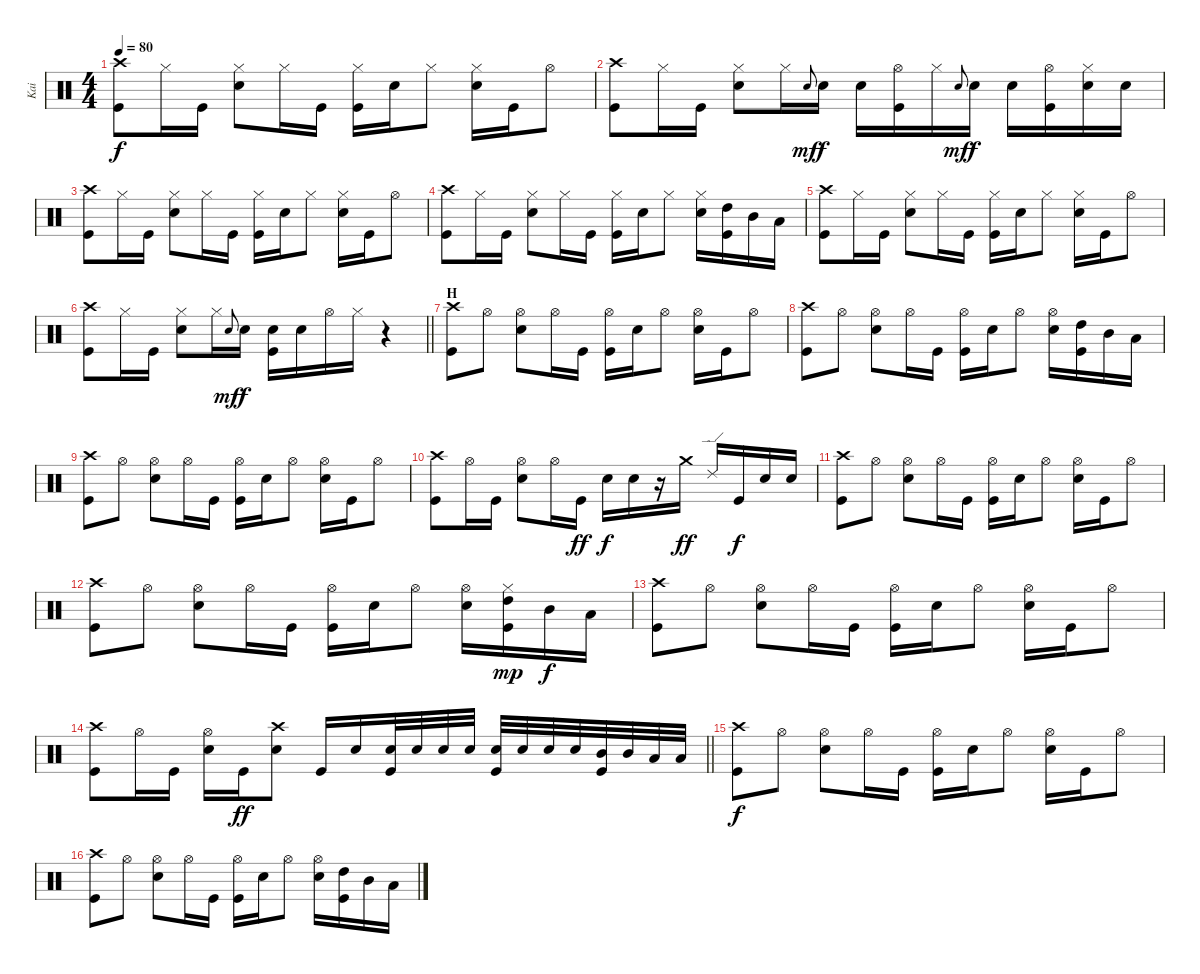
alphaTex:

\track ("Kai" "Kai") {instrument percussion}
\staff {score}
\articulation defaults
\ts (4 4)
\tempo 80
\clef neutral
\ks c
("Kick (hit)" "Crash high (hit)").8{dy f} "Hi-Hat (closed)".16 "Kick (hit)".16 ("Snare (hit) 2" "Hi-Hat (closed)").8 "Hi-Hat (closed)".16 "Kick (hit)".16 ("Kick (hit)" "Hi-Hat (closed)").16 "Snare (hit) 2".16 "Hi-Hat (closed)".8 ("Snare (hit) 2" "Hi-Hat (closed)").16 "Kick (hit)".16 "Hi-Hat (open)".8 |
("Kick (hit)" "Crash high (hit)").8 "Hi-Hat (closed)".16 "Kick (hit)".16 ("Snare (hit) 2" "Hi-Hat (closed)").8 "Hi-Hat (closed)".16 "Snare (hit) 2".8{gr onbeat dy mf} "Snare (hit) 2".16{dy f} "Snare (hit) 2".16 ("Kick (hit)" "Hi-Hat (open)").16 "Hi-Hat (closed)".16 "Snare (hit) 2".8{gr onbeat dy mf} "Snare (hit) 2".16{dy f} "Snare (hit) 2".16 ("Hi-Hat (open)" "Kick (hit)").16 ("Snare (hit) 2" "Hi-Hat (closed)").16 "Snare (hit) 2".16 |
("Kick (hit)" "Crash high (hit)").8 "Hi-Hat (closed)".16 "Kick (hit)".16 ("Snare (hit) 2" "Hi-Hat (closed)").8 "Hi-Hat (closed)".16 "Kick (hit)".16 ("Kick (hit)" "Hi-Hat (closed)").16 "Snare (hit) 2".16 "Hi-Hat (closed)".8 ("Snare (hit) 2" "Hi-Hat (closed)").16 "Kick (hit)".16 "Hi-Hat (open)".8 |
("Kick (hit)" "Crash high (hit)").8 "Hi-Hat (closed)".16 "Kick (hit)".16 ("Snare (hit) 2" "Hi-Hat (closed)").8 "Hi-Hat (closed)".16 "Kick (hit)".16 ("Kick (hit)" "Hi-Hat (closed)").16 "Snare (hit) 2".16 "Hi-Hat (closed)".8 ("Snare (hit) 2" "Hi-Hat (closed)").16 ("High Tom (hit)" "Kick (hit)").16 "Mid Tom (hit)".16 "Low Tom (hit)".16 |
("Kick (hit)" "Crash high (hit)").8 "Hi-Hat (closed)".16 "Kick (hit)".16 ("Snare (hit) 2" "Hi-Hat (closed)").8 "Hi-Hat (closed)".16 "Kick (hit)".16 ("Kick (hit)" "Hi-Hat (closed)").16 "Snare (hit) 2".16 "Hi-Hat (closed)".8 ("Snare (hit) 2" "Hi-Hat (closed)").16 "Kick (hit)".16 "Hi-Hat (open)".8 |
\barLineRight lightlight
("Kick (hit)" "Crash high (hit)").8 "Hi-Hat (closed)".16 "Kick (hit)".16 ("Snare (hit) 2" "Hi-Hat (closed)").8 "Hi-Hat (closed)".16 "Snare (hit) 2".8{gr onbeat dy mf} "Snare (hit) 2".16{dy f} ("Snare (hit) 2" "Kick (hit)").16 "Snare (hit) 2".16 "Hi-Hat (open)".16 "Hi-Hat (closed)".16 r.4 |
\section ("" "H")
("Kick (hit)" "Crash high (hit)").8 "Hi-Hat (open)".8 ("Snare (hit) 2" "Hi-Hat (open)").8 "Hi-Hat (open)".16 "Kick (hit)".16 ("Kick (hit)" "Hi-Hat (open)").16 "Snare (hit) 2".16 "Hi-Hat (open)".8 ("Snare (hit) 2" "Hi-Hat (open)").16 "Kick (hit)".16 "Hi-Hat (open)".8 |
("Kick (hit)" "Crash high (hit)").8 "Hi-Hat (open)".8 ("Snare (hit) 2" "Hi-Hat (open)").8 "Hi-Hat (open)".16 "Kick (hit)".16 ("Kick (hit)" "Hi-Hat (open)").16 "Snare (hit) 2".16 "Hi-Hat (open)".8 ("Snare (hit) 2" "Hi-Hat (open)").16 ("High Tom (hit)" "Kick (hit)").16 "Mid Tom (hit)".16 "Low Tom (hit)".16 |
("Kick (hit)" "Crash high (hit)").8 "Hi-Hat (open)".8 ("Snare (hit) 2" "Hi-Hat (open)").8 "Hi-Hat (open)".16 "Kick (hit)".16 ("Kick (hit)" "Hi-Hat (open)").16 "Snare (hit) 2".16 "Hi-Hat (open)".8 ("Snare (hit) 2" "Hi-Hat (open)").16 "Kick (hit)".16 "Hi-Hat (open)".8 |
("Kick (hit)" "Crash high (hit)").8 "Hi-Hat (open)".16 "Kick (hit)".16 ("Snare (hit) 2" "Hi-Hat (open)").8 "Hi-Hat (open)".16 "Kick (hit)".16{dy ff} "Snare (hit) 2".16{dy f} "Snare (hit) 2".16 r.16 "Crash medium (hit)".16{dy ff} "Ride (edge) 2".16 "Kick (hit)".16{dy f} "Snare (hit) 2".16 "Snare (hit) 2".16 |
("Kick (hit)" "Crash high (hit)").8 "Hi-Hat (open)".8 ("Snare (hit) 2" "Hi-Hat (open)").8 "Hi-Hat (open)".16 "Kick (hit)".16 ("Kick (hit)" "Hi-Hat (open)").16 "Snare (hit) 2".16 "Hi-Hat (open)".8 ("Snare (hit) 2" "Hi-Hat (open)").16 "Kick (hit)".16 "Hi-Hat (open)".8 |
("Kick (hit)" "Crash high (hit)").8 "Hi-Hat (open)".8 ("Snare (hit) 2" "Hi-Hat (open)").8 "Hi-Hat (open)".16 "Kick (hit)".16 ("Kick (hit)" "Hi-Hat (open)").16 "Snare (hit) 2".16 "Hi-Hat (open)".8 ("Snare (hit) 2" "Hi-Hat (open)").16 ("High Tom (hit)" "Hi-Hat (closed)" "Kick (hit)").16{dy mp} "Mid Tom (hit)".16{dy f} "Low Tom (hit)".16 |
("Kick (hit)" "Crash high (hit)").8 "Hi-Hat (open)".8 ("Snare (hit) 2" "Hi-Hat (open)").8 "Hi-Hat (open)".16 "Kick (hit)".16 ("Kick (hit)" "Hi-Hat (open)").16 "Snare (hit) 2".16 "Hi-Hat (open)".8 ("Snare (hit) 2" "Hi-Hat (open)").16 "Kick (hit)".16 "Hi-Hat (open)".8 |
\barLineRight lightlight
("Kick (hit)" "Crash high (hit)").8 "Hi-Hat (open)".16 "Kick (hit)".16 ("Snare (hit) 2" "Hi-Hat (open)").16 "Kick (hit)".16{dy ff} ("Snare (hit) 2" "Crash high (hit)").8 "Kick (hit)".16 "Snare (hit) 2".16 ("Kick (hit)" "Snare (hit) 2").32 "Snare (hit) 2".32 "Snare (hit) 2".32 "Snare (hit) 2".32 ("Snare (hit) 2" "Kick (hit)").32 "Snare (hit) 2".32 "Snare (hit) 2".32 "Snare (hit) 2".32 ("Mid Tom (hit)" "Kick (hit)").32 "Mid Tom (hit)".32 "Low Tom (hit)".32 "Low Tom (hit)".32 |
("Kick (hit)" "Crash high (hit)").8{dy f} "Hi-Hat (open)".8 ("Snare (hit) 2" "Hi-Hat (open)").8 "Hi-Hat (open)".16 "Kick (hit)".16 ("Kick (hit)" "Hi-Hat (open)").16 "Snare (hit) 2".16 "Hi-Hat (open)".8 ("Snare (hit) 2" "Hi-Hat (open)").16 "Kick (hit)".16 "Hi-Hat (open)".8 |
("Kick (hit)" "Crash high (hit)").8 "Hi-Hat (open)".8 ("Snare (hit) 2" "Hi-Hat (open)").8 "Hi-Hat (open)".16 "Kick (hit)".16 ("Kick (hit)" "Hi-Hat (open)").16 "Snare (hit) 2".16 "Hi-Hat (open)".8 ("Snare (hit) 2" "Hi-Hat (open)").16 ("High Tom (hit)" "Kick (hit)").16 "Mid Tom (hit)".16 "Low Tom (hit)".16
